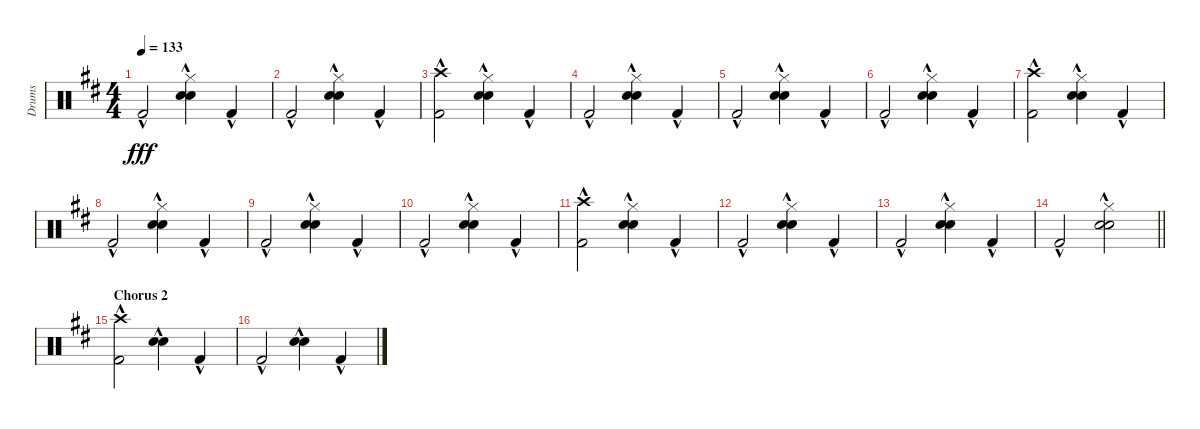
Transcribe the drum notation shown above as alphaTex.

\track ("Drums" "Drums") {instrument percussion}
\staff {score}
\articulation defaults
\ts (4 4)
\tempo 133
\clef neutral
\ks bminor "Kick (hit) 2"{hac}.2{dy fff}
("Hi-Hat (closed)"{hac} "Hand Clap (hit)"{hac} "Snare (hit) 2"{hac}).4 "Kick (hit) 2"{hac}.4 |
"Kick (hit) 2"{hac}.2 ("Hi-Hat (closed)"{hac} "Hand Clap (hit)"{hac} "Snare (hit) 2"{hac}).4 "Kick (hit) 2"{hac}.4 |
("Crash high (hit)"{hac} "Kick (hit) 2"{hac}).2 ("Hi-Hat (closed)"{hac} "Hand Clap (hit)"{hac} "Snare (hit) 2"{hac}).4 "Kick (hit) 2"{hac}.4 |
"Kick (hit) 2"{hac}.2 ("Hi-Hat (closed)"{hac} "Hand Clap (hit)"{hac} "Snare (hit) 2"{hac}).4 "Kick (hit) 2"{hac}.4 |
"Kick (hit) 2"{hac}.2 ("Hi-Hat (closed)"{hac} "Hand Clap (hit)"{hac} "Snare (hit) 2"{hac}).4 "Kick (hit) 2"{hac}.4 |
"Kick (hit) 2"{hac}.2 ("Hi-Hat (closed)"{hac} "Hand Clap (hit)"{hac} "Snare (hit) 2"{hac}).4 "Kick (hit) 2"{hac}.4 |
("Crash high (hit)"{hac} "Kick (hit) 2"{hac}).2 ("Hi-Hat (closed)"{hac} "Hand Clap (hit)"{hac} "Snare (hit) 2"{hac}).4 "Kick (hit) 2"{hac}.4 |
"Kick (hit) 2"{hac}.2 ("Hi-Hat (closed)"{hac} "Hand Clap (hit)"{hac} "Snare (hit) 2"{hac}).4 "Kick (hit) 2"{hac}.4 |
"Kick (hit) 2"{hac}.2 ("Hi-Hat (closed)"{hac} "Hand Clap (hit)"{hac} "Snare (hit) 2"{hac}).4 "Kick (hit) 2"{hac}.4 |
"Kick (hit) 2"{hac}.2 ("Hi-Hat (closed)"{hac} "Hand Clap (hit)"{hac} "Snare (hit) 2"{hac}).4 "Kick (hit) 2"{hac}.4 |
("Crash high (hit)"{hac} "Kick (hit) 2"{hac}).2 ("Hi-Hat (closed)"{hac} "Hand Clap (hit)"{hac} "Snare (hit) 2"{hac}).4 "Kick (hit) 2"{hac}.4 |
"Kick (hit) 2"{hac}.2 ("Hi-Hat (closed)"{hac} "Hand Clap (hit)"{hac} "Snare (hit) 2"{hac}).4 "Kick (hit) 2"{hac}.4 |
"Kick (hit) 2"{hac}.2 ("Hi-Hat (closed)"{hac} "Hand Clap (hit)"{hac} "Snare (hit) 2"{hac}).4 "Kick (hit) 2"{hac}.4 |
\barLineRight lightlight "Kick (hit) 2"{hac}.2
("Hi-Hat (closed)"{hac} "Hand Clap (hit)"{hac} "Snare (hit) 2"{hac}).2 |
\section ("" "Chorus 2")
("Crash high (hit)"{hac} "Kick (hit) 2"{hac}).2 ("Hand Clap (hit)"{hac} "Snare (hit) 2"{hac}).4 "Kick (hit) 2"{hac}.4 |
"Kick (hit) 2"{hac}.2 ("Hand Clap (hit)"{hac} "Snare (hit) 2"{hac}).4 "Kick (hit) 2"{hac}.4
